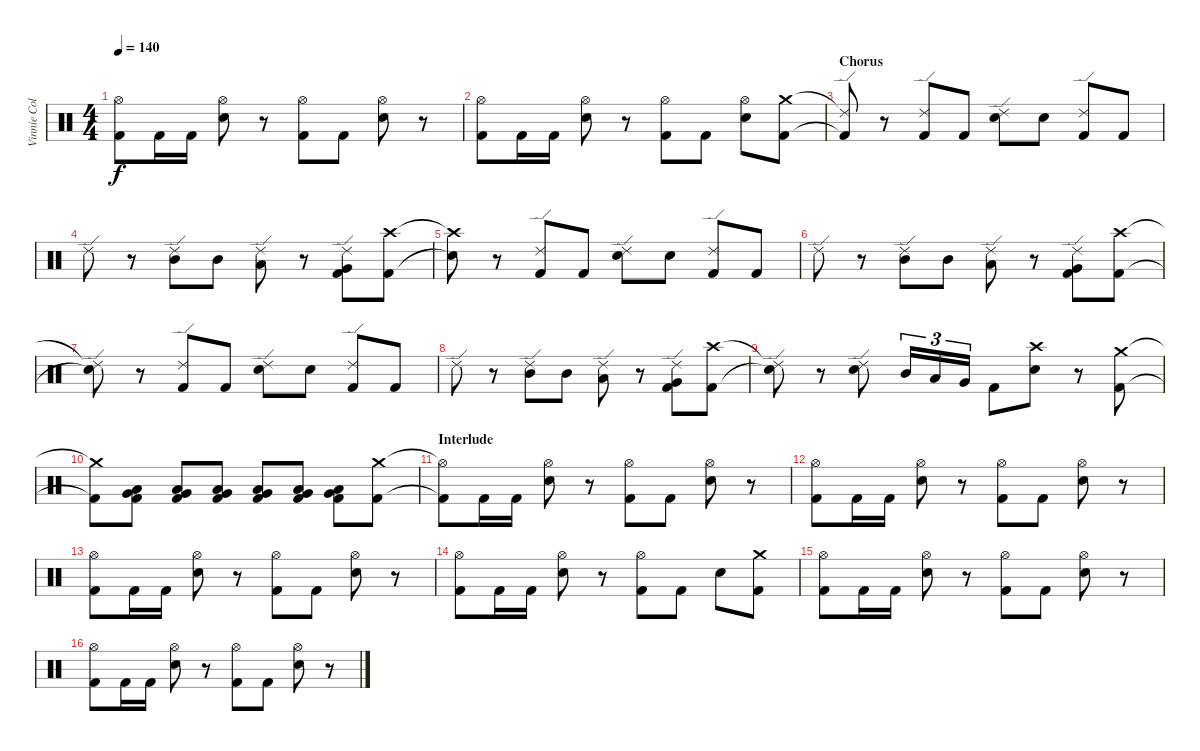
\track ("Vinnie Colaiuta" "Vinnie Col") {instrument percussion}
\staff {score}
\articulation defaults
\ts (4 4)
\tempo 140
\clef neutral
\ks c
("Hi-Hat (open)" "Kick (hit) 2").8{dy f} "Kick (hit) 2".16 "Kick (hit) 2".16 ("Hi-Hat (open)" "Snare (hit) 2").8 r.8 ("Hi-Hat (open)" "Kick (hit) 2").8 "Kick (hit) 2".8 ("Hi-Hat (open)" "Snare (hit) 2").8 r.8 |
("Hi-Hat (open)" "Kick (hit) 2").8 "Kick (hit) 2".16 "Kick (hit) 2".16 ("Hi-Hat (open)" "Snare (hit) 2").8 r.8 ("Hi-Hat (open)" "Kick (hit) 2").8 "Kick (hit) 2".8 ("Hi-Hat (open)" "Snare (hit) 2").8 ("Crash medium (hit)" "Kick (hit) 2").8 |
\section ("" "Chorus")
("Ride (edge) 2"{t} "Kick (hit) 2"{t}).8 r.8 ("Ride (edge) 2" "Kick (hit) 2").8 "Kick (hit) 2".8 ("Ride (edge) 2" "Snare (hit) 2").8 "Snare (hit) 2".8 ("Ride (edge) 2" "Kick (hit) 2").8 "Kick (hit) 2".8 |
"Ride (edge) 2".8 r.8 ("Ride (edge) 2" "Mid Tom (hit)").8 "Mid Tom (hit)".8 ("Ride (edge) 2" "Low Tom (hit)").8 r.8 ("Ride (edge) 2" "Very Low Tom (hit)" "Kick (hit) 2").8 ("Crash high (hit)" "Kick (hit) 2").8 |
("Crash high (hit)"{t} "Snare (hit)"{t}).8 r.8 ("Ride (edge) 2" "Kick (hit) 2").8 "Kick (hit) 2".8 ("Ride (edge) 2" "Snare (hit) 2").8 "Snare (hit) 2".8 ("Ride (edge) 2" "Kick (hit) 2").8 "Kick (hit) 2".8 |
"Ride (edge) 2".8 r.8 ("Ride (edge) 2" "Mid Tom (hit)").8 "Mid Tom (hit)".8 ("Ride (edge) 2" "Low Tom (hit)").8 r.8 ("Ride (edge) 2" "Very Low Tom (hit)" "Kick (hit) 2").8 ("Crash high (hit)" "Kick (hit) 2").8 |
("Ride (edge) 2"{t} "Snare (hit)"{t}).8 r.8 ("Ride (edge) 2" "Kick (hit) 2").8 "Kick (hit) 2".8 ("Ride (edge) 2" "Snare (hit) 2").8 "Snare (hit) 2".8 ("Ride (edge) 2" "Kick (hit) 2").8 "Kick (hit) 2".8 |
"Ride (edge) 2".8 r.8 ("Ride (edge) 2" "Mid Tom (hit)").8 "Mid Tom (hit)".8 ("Ride (edge) 2" "Low Tom (hit)").8 r.8 ("Ride (edge) 2" "Very Low Tom (hit)" "Kick (hit) 2").8 ("Crash high (hit)" "Kick (hit) 2").8 |
("Ride (edge) 2"{t} "Snare (hit)"{t}).8 r.8 ("Ride (edge) 2" "Snare (hit) 2").8 "Mid Tom (hit)".16{tu (3 2)} "Low Tom (hit)".16{tu (3 2)} "Very Low Tom (hit)".16{tu (3 2)} "Kick (hit) 2".8 ("Crash high (hit)" "Snare (hit) 2").8 r.8 ("Crash medium (hit)" "Kick (hit) 2").8 |
("Crash medium (hit)"{t} "Kick (hit) 2"{t}).8 ("Low Tom (hit)" "Very Low Tom (hit)" "Kick (hit) 2").8 ("Low Tom (hit)" "Very Low Tom (hit)" "Kick (hit) 2").8 ("Low Tom (hit)" "Very Low Tom (hit)" "Kick (hit) 2").8 ("Low Tom (hit)" "Very Low Tom (hit)" "Kick (hit) 2").8 ("Low Tom (hit)" "Very Low Tom (hit)" "Kick (hit) 2").8 ("Low Tom (hit)" "Very Low Tom (hit)" "Kick (hit) 2").8 ("Crash medium (hit)" "Kick (hit) 2").8 |
\section ("" "Interlude")
("Hi-Hat (open)"{t} "Kick (hit) 2"{t}).8 "Kick (hit) 2".16 "Kick (hit) 2".16 ("Hi-Hat (open)" "Snare (hit) 2").8 r.8 ("Hi-Hat (open)" "Kick (hit) 2").8 "Kick (hit) 2".8 ("Hi-Hat (open)" "Snare (hit) 2").8 r.8 |
("Hi-Hat (open)" "Kick (hit) 2").8 "Kick (hit) 2".16 "Kick (hit) 2".16 ("Hi-Hat (open)" "Snare (hit) 2").8 r.8 ("Hi-Hat (open)" "Kick (hit) 2").8 "Kick (hit) 2".8 ("Hi-Hat (open)" "Snare (hit) 2").8 r.8 |
("Hi-Hat (open)" "Kick (hit) 2").8 "Kick (hit) 2".16 "Kick (hit) 2".16 ("Hi-Hat (open)" "Snare (hit) 2").8 r.8 ("Hi-Hat (open)" "Kick (hit) 2").8 "Kick (hit) 2".8 ("Hi-Hat (open)" "Snare (hit) 2").8 r.8 |
("Hi-Hat (open)" "Kick (hit) 2").8 "Kick (hit) 2".16 "Kick (hit) 2".16 ("Hi-Hat (open)" "Snare (hit) 2").8 r.8 ("Hi-Hat (open)" "Kick (hit) 2").8 "Kick (hit) 2".8 "Snare (hit) 2".8 ("Crash medium (hit)" "Kick (hit) 2").8 |
("Hi-Hat (open)" "Kick (hit) 2").8 "Kick (hit) 2".16 "Kick (hit) 2".16 ("Hi-Hat (open)" "Snare (hit) 2").8 r.8 ("Hi-Hat (open)" "Kick (hit) 2").8 "Kick (hit) 2".8 ("Hi-Hat (open)" "Snare (hit) 2").8 r.8 |
("Hi-Hat (open)" "Kick (hit) 2").8 "Kick (hit) 2".16 "Kick (hit) 2".16 ("Hi-Hat (open)" "Snare (hit) 2").8 r.8 ("Hi-Hat (open)" "Kick (hit) 2").8 "Kick (hit) 2".8 ("Hi-Hat (open)" "Snare (hit) 2").8 r.8
